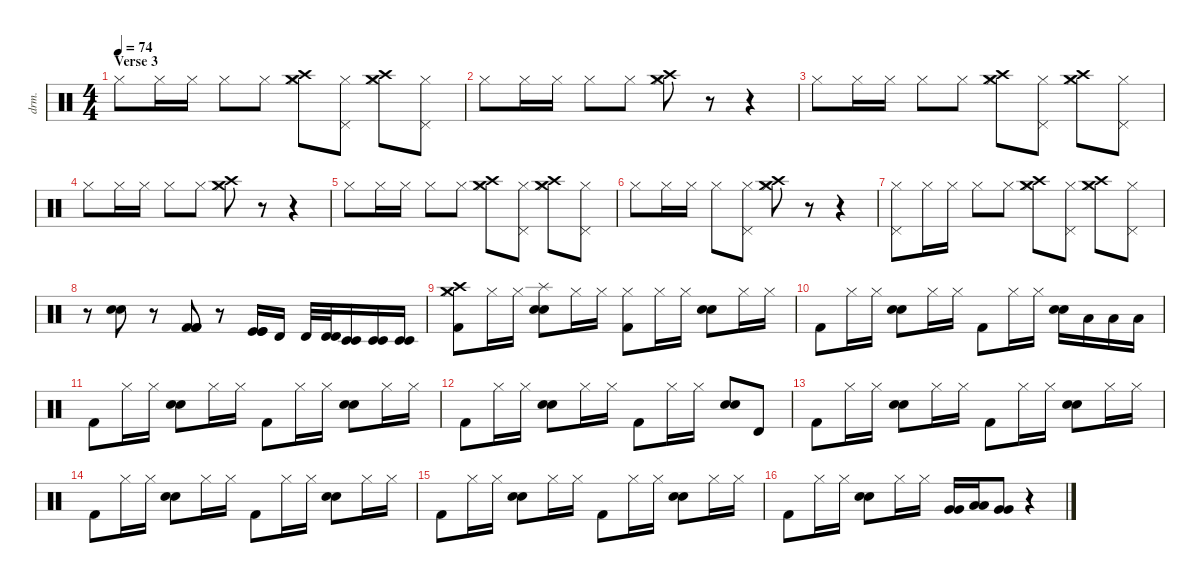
\defaultSystemsLayout 4
\hideDynamics
\bracketExtendMode nobrackets
\otherSystemsTrackNameOrientation horizontal
\track ("Percussion" "drm.") {instrument percussion}
\staff {score}
\articulation defaults
\ts (4 4)
\section ("" "Verse 3")
\tempo 74
\clef neutral
\ks c "Hi-Hat (closed)".8{dy f} "Hi-Hat (closed)".16 "Hi-Hat (closed)".16 "Hi-Hat (closed)".8 "Hi-Hat (closed)".8
("Hi-Hat (closed)" "Crash medium (hit)" "Crash high (hit)").8 ("Hi-Hat (closed)" "Pedal Hi-Hat (hit)").8 ("Hi-Hat (closed)" "Crash medium (hit)" "Crash high (hit)").8 ("Hi-Hat (closed)" "Pedal Hi-Hat (hit)").8 |
"Hi-Hat (closed)".8 "Hi-Hat (closed)".16 "Hi-Hat (closed)".16 "Hi-Hat (closed)".8 "Hi-Hat (closed)".8 ("Hi-Hat (closed)" "Crash medium (hit)" "Crash high (hit)").8 r.8 r.4 |
"Hi-Hat (closed)".8 "Hi-Hat (closed)".16 "Hi-Hat (closed)".16 "Hi-Hat (closed)".8 "Hi-Hat (closed)".8 ("Hi-Hat (closed)" "Crash medium (hit)" "Crash high (hit)").8 ("Hi-Hat (closed)" "Pedal Hi-Hat (hit)").8 ("Hi-Hat (closed)" "Crash medium (hit)" "Crash high (hit)").8 ("Hi-Hat (closed)" "Pedal Hi-Hat (hit)").8 |
"Hi-Hat (closed)".8 "Hi-Hat (closed)".16 "Hi-Hat (closed)".16 "Hi-Hat (closed)".8 "Hi-Hat (closed)".8 ("Hi-Hat (closed)" "Crash medium (hit)" "Crash high (hit)").8 r.8 r.4 |
"Hi-Hat (closed)".8 "Hi-Hat (closed)".16 "Hi-Hat (closed)".16 "Hi-Hat (closed)".8 "Hi-Hat (closed)".8 ("Hi-Hat (closed)" "Crash medium (hit)" "Crash high (hit)").8 ("Hi-Hat (closed)" "Pedal Hi-Hat (hit)").8 ("Hi-Hat (closed)" "Crash medium (hit)" "Crash high (hit)").8 ("Hi-Hat (closed)" "Pedal Hi-Hat (hit)").8 |
"Hi-Hat (closed)".8 "Hi-Hat (closed)".16 "Hi-Hat (closed)".16 "Hi-Hat (closed)".8 ("Hi-Hat (closed)" "Pedal Hi-Hat (hit)").8 ("Hi-Hat (closed)" "Crash medium (hit)" "Crash high (hit)").8 r.8 r.4 |
("Hi-Hat (closed)" "Pedal Hi-Hat (hit)").8 "Hi-Hat (closed)".16 "Hi-Hat (closed)".16 "Hi-Hat (closed)".8 "Hi-Hat (closed)".8 ("Hi-Hat (closed)" "Crash medium (hit)" "Crash high (hit)").8 ("Hi-Hat (closed)" "Pedal Hi-Hat (hit)").8 ("Hi-Hat (closed)" "Crash medium (hit)" "Crash high (hit)").8 ("Hi-Hat (closed)" "Pedal Hi-Hat (hit)").8 |
r.8 ("Snare (hit) 2" "Snare (hit) 2").8 r.8 ("Kick (hit) 2" "Kick (hit) 2" "Kick (hit) 2").8 r.8 ("Kick (hit)" "Kick (hit)" "Kick (hit)").16 "Timbale high (hit)".16 "Timbale high (hit)".32 ("Timbale high (hit)" "Timbale high (hit)").32 ("Timbale low (hit)" "Timbale low (hit)").16 ("Timbale low (hit)" "Timbale low (hit)").16 ("Timbale low (hit)" "Timbale low (hit)").16 |
("Hi-Hat (closed)" "Crash medium (hit)" "Kick (hit) 2" "Crash high (hit)").8 "Hi-Hat (closed)".16 "Hi-Hat (closed)".16 ("Snare (hit) 2" "Snare (hit) 2" "Splash (hit)").8 "Hi-Hat (closed)".16 "Hi-Hat (closed)".16 ("Hi-Hat (closed)" "Kick (hit) 2").8 "Hi-Hat (closed)".16 "Hi-Hat (closed)".16 ("Snare (hit) 2" "Snare (hit) 2").8 "Hi-Hat (closed)".16 "Hi-Hat (closed)".16 |
"Kick (hit) 2".8 "Hi-Hat (closed)".16 "Hi-Hat (closed)".16 ("Snare (hit) 2" "Snare (hit) 2").8 "Hi-Hat (closed)".16 "Hi-Hat (closed)".16 "Kick (hit) 2".8 "Hi-Hat (closed)".16 "Hi-Hat (closed)".16 ("Snare (hit) 2" "Snare (hit) 2").16 "Low Floor Tom (hit)".16 "Low Floor Tom (hit)".16 "Low Floor Tom (hit)".16 |
"Kick (hit) 2".8 "Hi-Hat (closed)".16 "Hi-Hat (closed)".16 ("Snare (hit) 2" "Snare (hit) 2").8 "Hi-Hat (closed)".16 "Hi-Hat (closed)".16 "Kick (hit) 2".8 "Hi-Hat (closed)".16 "Hi-Hat (closed)".16 ("Snare (hit) 2" "Snare (hit) 2").8 "Hi-Hat (closed)".16 "Hi-Hat (closed)".16 |
"Kick (hit) 2".8 "Hi-Hat (closed)".16 "Hi-Hat (closed)".16 ("Snare (hit) 2" "Snare (hit) 2").8 "Hi-Hat (closed)".16 "Hi-Hat (closed)".16 "Kick (hit) 2".8 "Hi-Hat (closed)".16 "Hi-Hat (closed)".16 ("Snare (hit) 2" "Snare (hit) 2").8 "Timbale high (hit)".8 |
"Kick (hit) 2".8 "Hi-Hat (closed)".16 "Hi-Hat (closed)".16 ("Snare (hit) 2" "Snare (hit) 2").8 "Hi-Hat (closed)".16 "Hi-Hat (closed)".16 "Kick (hit) 2".8 "Hi-Hat (closed)".16 "Hi-Hat (closed)".16 ("Snare (hit) 2" "Snare (hit) 2").8 "Hi-Hat (closed)".16 "Hi-Hat (closed)".16 |
"Kick (hit) 2".8 "Hi-Hat (closed)".16 "Hi-Hat (closed)".16 ("Snare (hit) 2" "Snare (hit) 2").8 "Hi-Hat (closed)".16 "Hi-Hat (closed)".16 "Kick (hit) 2".8 "Hi-Hat (closed)".16 "Hi-Hat (closed)".16 ("Snare (hit) 2" "Snare (hit) 2").8 "Hi-Hat (closed)".16 "Hi-Hat (closed)".16 |
"Kick (hit) 2".8 "Hi-Hat (closed)".16 "Hi-Hat (closed)".16 ("Snare (hit) 2" "Snare (hit) 2").8 "Hi-Hat (closed)".16 "Hi-Hat (closed)".16 "Kick (hit) 2".8 "Hi-Hat (closed)".16 "Hi-Hat (closed)".16 ("Snare (hit) 2" "Snare (hit) 2").8 "Hi-Hat (closed)".16 "Hi-Hat (closed)".16 |
"Kick (hit) 2".8 "Hi-Hat (closed)".16 "Hi-Hat (closed)".16 ("Snare (hit) 2" "Snare (hit) 2").8 "Hi-Hat (closed)".16 "Hi-Hat (closed)".16 ("Very Low Tom (hit)" "Very Low Tom (hit)").16 ("Low Floor Tom (hit)" "Low Floor Tom (hit)").16 ("Very Low Tom (hit)" "Very Low Tom (hit)").8 r.4
